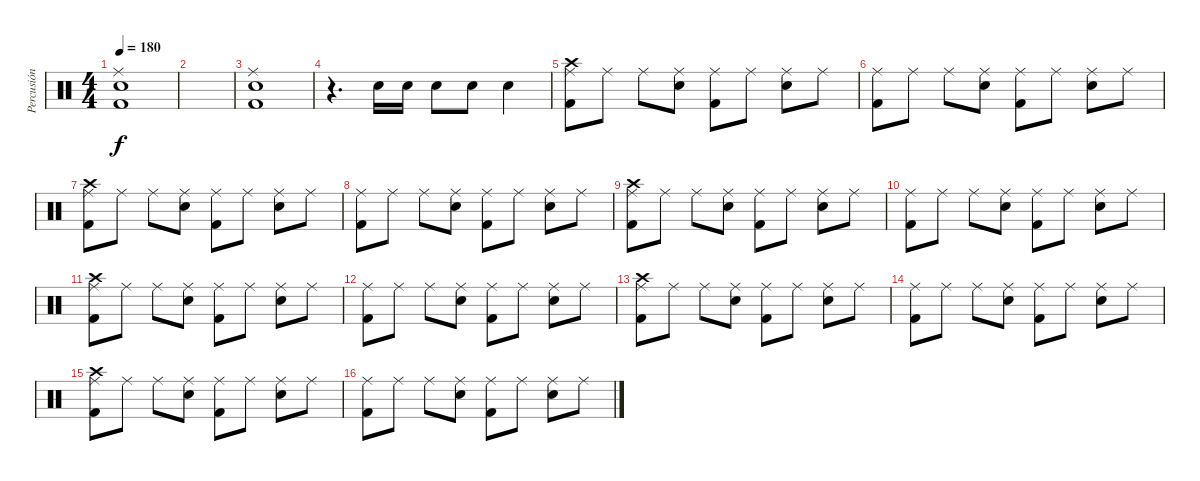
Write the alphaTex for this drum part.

\track ("Percusión" "Percusión") {instrument percussion}
\staff {score}
\articulation defaults
\ts (4 4)
\tempo 180
\clef neutral
\ks c
("Kick (hit) 2" "Snare (hit) 2" "Ride (middle)").1{dy f} |
|
("Kick (hit) 2" "Snare (hit) 2" "Ride (middle)").1 |
r.4{d} "Snare (hit) 2".16 "Snare (hit) 2".16 "Snare (hit) 2".8 "Snare (hit) 2".8 "Snare (hit) 2".4 |
("Kick (hit) 2" "Crash high (hit)" "Ride (middle)").8 "Ride (middle)".8 "Ride (middle)".8 ("Snare (hit) 2" "Ride (middle)").8 ("Kick (hit) 2" "Ride (middle)").8 "Ride (middle)".8 ("Snare (hit) 2" "Ride (middle)").8 "Ride (middle)".8 |
("Kick (hit) 2" "Ride (middle)").8 "Ride (middle)".8 "Ride (middle)".8 ("Snare (hit) 2" "Ride (middle)").8 ("Kick (hit) 2" "Ride (middle)").8 "Ride (middle)".8 ("Snare (hit) 2" "Ride (middle)").8 "Ride (middle)".8 |
("Kick (hit) 2" "Crash high (hit)" "Ride (middle)").8 "Ride (middle)".8 "Ride (middle)".8 ("Snare (hit) 2" "Ride (middle)").8 ("Kick (hit) 2" "Ride (middle)").8 "Ride (middle)".8 ("Snare (hit) 2" "Ride (middle)").8 "Ride (middle)".8 |
("Kick (hit) 2" "Ride (middle)").8 "Ride (middle)".8 "Ride (middle)".8 ("Snare (hit) 2" "Ride (middle)").8 ("Kick (hit) 2" "Ride (middle)").8 "Ride (middle)".8 ("Snare (hit) 2" "Ride (middle)").8 "Ride (middle)".8 |
("Kick (hit) 2" "Crash high (hit)" "Ride (middle)").8 "Ride (middle)".8 "Ride (middle)".8 ("Snare (hit) 2" "Ride (middle)").8 ("Kick (hit) 2" "Ride (middle)").8 "Ride (middle)".8 ("Snare (hit) 2" "Ride (middle)").8 "Ride (middle)".8 |
("Kick (hit) 2" "Ride (middle)").8 "Ride (middle)".8 "Ride (middle)".8 ("Snare (hit) 2" "Ride (middle)").8 ("Kick (hit) 2" "Ride (middle)").8 "Ride (middle)".8 ("Snare (hit) 2" "Ride (middle)").8 "Ride (middle)".8 |
("Kick (hit) 2" "Crash high (hit)" "Ride (middle)").8 "Ride (middle)".8 "Ride (middle)".8 ("Snare (hit) 2" "Ride (middle)").8 ("Kick (hit) 2" "Ride (middle)").8 "Ride (middle)".8 ("Snare (hit) 2" "Ride (middle)").8 "Ride (middle)".8 |
("Kick (hit) 2" "Ride (middle)").8 "Ride (middle)".8 "Ride (middle)".8 ("Snare (hit) 2" "Ride (middle)").8 ("Kick (hit) 2" "Ride (middle)").8 "Ride (middle)".8 ("Snare (hit) 2" "Ride (middle)").8 "Ride (middle)".8 |
("Kick (hit) 2" "Crash high (hit)" "Ride (middle)").8 "Ride (middle)".8 "Ride (middle)".8 ("Snare (hit) 2" "Ride (middle)").8 ("Kick (hit) 2" "Ride (middle)").8 "Ride (middle)".8 ("Snare (hit) 2" "Ride (middle)").8 "Ride (middle)".8 |
("Kick (hit) 2" "Ride (middle)").8 "Ride (middle)".8 "Ride (middle)".8 ("Snare (hit) 2" "Ride (middle)").8 ("Kick (hit) 2" "Ride (middle)").8 "Ride (middle)".8 ("Snare (hit) 2" "Ride (middle)").8 "Ride (middle)".8 |
("Kick (hit) 2" "Crash high (hit)" "Ride (middle)").8 "Ride (middle)".8 "Ride (middle)".8 ("Snare (hit) 2" "Ride (middle)").8 ("Kick (hit) 2" "Ride (middle)").8 "Ride (middle)".8 ("Snare (hit) 2" "Ride (middle)").8 "Ride (middle)".8 |
("Kick (hit) 2" "Ride (middle)").8 "Ride (middle)".8 "Ride (middle)".8 ("Snare (hit) 2" "Ride (middle)").8 ("Kick (hit) 2" "Ride (middle)").8 "Ride (middle)".8 ("Snare (hit) 2" "Ride (middle)").8 "Ride (middle)".8
